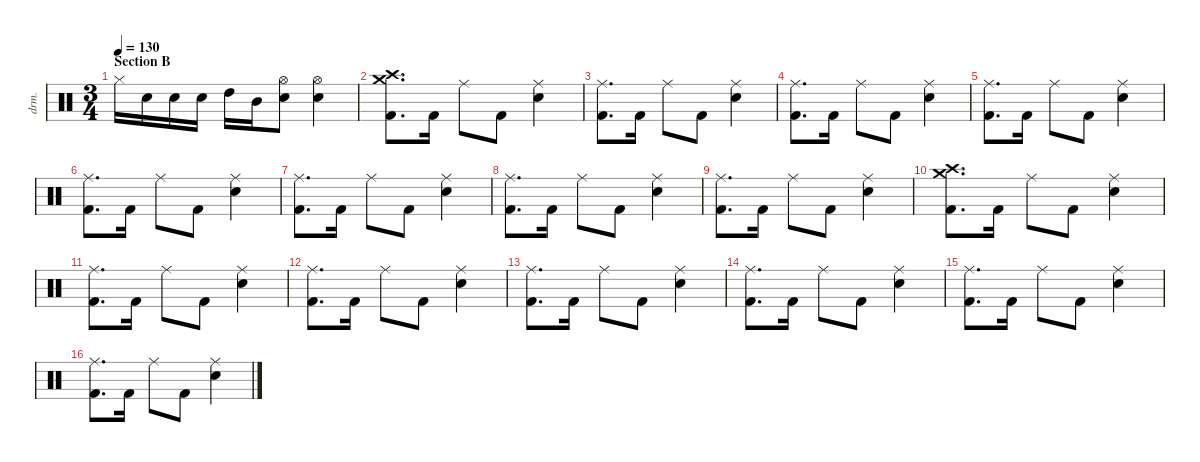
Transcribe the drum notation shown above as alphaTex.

\defaultSystemsLayout 4
\hideDynamics
\bracketExtendMode nobrackets
\otherSystemsTrackNameOrientation horizontal
\track ("Percussion" "drm.") {instrument percussion}
\staff {score}
\articulation defaults
\ts (3 4)
\section ("" "Section B")
\tempo 130
\clef neutral
\ks c "Hi-Hat (closed)".16{dy f beam Down} "Snare (hit) 2".16{beam Down} "Snare (hit) 2".16{beam Down} "Snare (hit) 2".16{beam Down} "High Tom (hit)".16{beam Down} "Mid Tom (hit)".16{beam Down}
("Hi-Hat (open)" "Snare (hit) 2").8{beam Down} ("Hi-Hat (open)" "Snare (hit) 2").4{beam Down} |
("Crash medium (hit)" "Crash high (hit)" "Kick (hit) 2").8{d beam Down} "Kick (hit) 2".16{beam Down} "Ride (middle)".8{beam Down} "Kick (hit) 2".8{beam Down} ("Ride (middle)" "Snare (hit) 2").4{beam Down} |
("Ride (middle)" "Kick (hit) 2").8{d beam Down} "Kick (hit) 2".16{beam Down} "Ride (middle)".8{beam Down} "Kick (hit) 2".8{beam Down} ("Ride (middle)" "Snare (hit) 2").4{beam Down} |
("Ride (middle)" "Kick (hit) 2").8{d beam Down} "Kick (hit) 2".16{beam Down} "Ride (middle)".8{beam Down} "Kick (hit) 2".8{beam Down} ("Ride (middle)" "Snare (hit) 2").4{beam Down} |
("Ride (middle)" "Kick (hit) 2").8{d beam Down} "Kick (hit) 2".16{beam Down} "Ride (middle)".8{beam Down} "Kick (hit) 2".8{beam Down} ("Ride (middle)" "Snare (hit) 2").4{beam Down} |
("Ride (middle)" "Kick (hit) 2").8{d beam Down} "Kick (hit) 2".16{beam Down} "Ride (middle)".8{beam Down} "Kick (hit) 2".8{beam Down} ("Ride (middle)" "Snare (hit) 2").4{beam Down} |
("Ride (middle)" "Kick (hit) 2").8{d beam Down} "Kick (hit) 2".16{beam Down} "Ride (middle)".8{beam Down} "Kick (hit) 2".8{beam Down} ("Ride (middle)" "Snare (hit) 2").4{beam Down} |
("Ride (middle)" "Kick (hit) 2").8{d beam Down} "Kick (hit) 2".16{beam Down} "Ride (middle)".8{beam Down} "Kick (hit) 2".8{beam Down} ("Ride (middle)" "Snare (hit) 2").4{beam Down} |
("Ride (middle)" "Kick (hit) 2").8{d beam Down} "Kick (hit) 2".16{beam Down} "Ride (middle)".8{beam Down} "Kick (hit) 2".8{beam Down} ("Ride (middle)" "Snare (hit) 2").4{beam Down} |
("Crash medium (hit)" "Crash high (hit)" "Kick (hit) 2").8{d beam Down} "Kick (hit) 2".16{beam Down} "Ride (middle)".8{beam Down} "Kick (hit) 2".8{beam Down} ("Ride (middle)" "Snare (hit) 2").4{beam Down} |
("Ride (middle)" "Kick (hit) 2").8{d beam Down} "Kick (hit) 2".16{beam Down} "Ride (middle)".8{beam Down} "Kick (hit) 2".8{beam Down} ("Ride (middle)" "Snare (hit) 2").4{beam Down} |
("Ride (middle)" "Kick (hit) 2").8{d beam Down} "Kick (hit) 2".16{beam Down} "Ride (middle)".8{beam Down} "Kick (hit) 2".8{beam Down} ("Ride (middle)" "Snare (hit) 2").4{beam Down} |
("Ride (middle)" "Kick (hit) 2").8{d beam Down} "Kick (hit) 2".16{beam Down} "Ride (middle)".8{beam Down} "Kick (hit) 2".8{beam Down} ("Ride (middle)" "Snare (hit) 2").4{beam Down} |
("Ride (middle)" "Kick (hit) 2").8{d beam Down} "Kick (hit) 2".16{beam Down} "Ride (middle)".8{beam Down} "Kick (hit) 2".8{beam Down} ("Ride (middle)" "Snare (hit) 2").4{beam Down} |
("Ride (middle)" "Kick (hit) 2").8{d beam Down} "Kick (hit) 2".16{beam Down} "Ride (middle)".8{beam Down} "Kick (hit) 2".8{beam Down} ("Ride (middle)" "Snare (hit) 2").4{beam Down} |
("Ride (middle)" "Kick (hit) 2").8{d beam Down} "Kick (hit) 2".16{beam Down} "Ride (middle)".8{beam Down} "Kick (hit) 2".8{beam Down} ("Ride (middle)" "Snare (hit) 2").4{beam Down}
